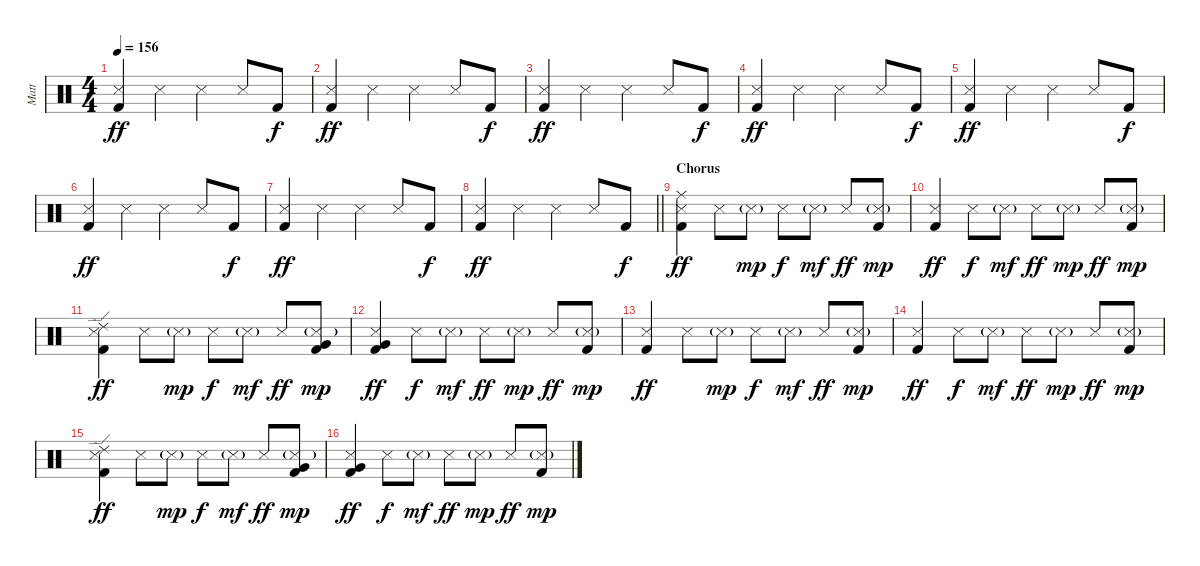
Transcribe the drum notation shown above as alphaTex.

\track ("Matt" "Matt") {instrument percussion}
\staff {score}
\articulation defaults
\ts (4 4)
\tempo 156
\clef neutral
\ks c
("Snare (side stick) 3" "Kick (hit) 2").4{dy ff} "Snare (side stick) 3".4 "Snare (side stick) 3".4 "Snare (side stick) 3".8 "Kick (hit) 2".8{dy f} |
("Snare (side stick) 3" "Kick (hit) 2").4{dy ff} "Snare (side stick) 3".4 "Snare (side stick) 3".4 "Snare (side stick) 3".8 "Kick (hit) 2".8{dy f} |
("Snare (side stick) 3" "Kick (hit) 2").4{dy ff} "Snare (side stick) 3".4 "Snare (side stick) 3".4 "Snare (side stick) 3".8 "Kick (hit) 2".8{dy f} |
("Snare (side stick) 3" "Kick (hit) 2").4{dy ff} "Snare (side stick) 3".4 "Snare (side stick) 3".4 "Snare (side stick) 3".8 "Kick (hit) 2".8{dy f} |
("Snare (side stick) 3" "Kick (hit) 2").4{dy ff} "Snare (side stick) 3".4 "Snare (side stick) 3".4 "Snare (side stick) 3".8 "Kick (hit) 2".8{dy f} |
("Snare (side stick) 3" "Kick (hit) 2").4{dy ff} "Snare (side stick) 3".4 "Snare (side stick) 3".4 "Snare (side stick) 3".8 "Kick (hit) 2".8{dy f} |
("Snare (side stick) 3" "Kick (hit) 2").4{dy ff} "Snare (side stick) 3".4 "Snare (side stick) 3".4 "Snare (side stick) 3".8 "Kick (hit) 2".8{dy f} |
\barLineRight lightlight
("Snare (side stick) 3" "Kick (hit) 2").4{dy ff} "Snare (side stick) 3".4 "Snare (side stick) 3".4 "Snare (side stick) 3".8 "Kick (hit) 2".8{dy f} |
\section ("" "Chorus")
("Ride (middle)" "Snare (side stick) 3" "Kick (hit) 2").4{dy ff} "Snare (side stick) 3".8 "Snare (side stick) 3"{g}.8{dy mp} "Snare (side stick) 3".8{dy f} "Snare (side stick) 3"{g}.8{dy mf} "Snare (side stick) 3".8{dy ff} ("Snare (side stick) 3"{g} "Kick (hit) 2").8{dy mp} |
("Snare (side stick) 3" "Kick (hit) 2").4{dy ff} "Snare (side stick) 3".8{dy f} "Snare (side stick) 3"{g}.8{dy mf} "Snare (side stick) 3".8{dy ff} "Snare (side stick) 3"{g}.8{dy mp} "Snare (side stick) 3".8{dy ff} ("Snare (side stick) 3"{g} "Kick (hit) 2").8{dy mp} |
("Ride (edge) 2" "Snare (side stick) 3" "Kick (hit) 2").4{dy ff} "Snare (side stick) 3".8 "Snare (side stick) 3"{g}.8{dy mp} "Snare (side stick) 3".8{dy f} "Snare (side stick) 3"{g}.8{dy mf} "Snare (side stick) 3".8{dy ff} ("Snare (side stick) 3"{g} "Very Low Tom (hit)" "Kick (hit) 2").8{dy mp} |
("Snare (side stick) 3" "Very Low Tom (hit)" "Kick (hit) 2").4{dy ff} "Snare (side stick) 3".8{dy f} "Snare (side stick) 3"{g}.8{dy mf} "Snare (side stick) 3".8{dy ff} "Snare (side stick) 3"{g}.8{dy mp} "Snare (side stick) 3".8{dy ff} ("Snare (side stick) 3"{g} "Kick (hit) 2").8{dy mp} |
("Snare (side stick) 3" "Kick (hit) 2").4{dy ff} "Snare (side stick) 3".8 "Snare (side stick) 3"{g}.8{dy mp} "Snare (side stick) 3".8{dy f} "Snare (side stick) 3"{g}.8{dy mf} "Snare (side stick) 3".8{dy ff} ("Snare (side stick) 3"{g} "Kick (hit) 2").8{dy mp} |
("Snare (side stick) 3" "Kick (hit) 2").4{dy ff} "Snare (side stick) 3".8{dy f} "Snare (side stick) 3"{g}.8{dy mf} "Snare (side stick) 3".8{dy ff} "Snare (side stick) 3"{g}.8{dy mp} "Snare (side stick) 3".8{dy ff} ("Snare (side stick) 3"{g} "Kick (hit) 2").8{dy mp} |
("Ride (edge) 2" "Snare (side stick) 3" "Kick (hit) 2").4{dy ff} "Snare (side stick) 3".8 "Snare (side stick) 3"{g}.8{dy mp} "Snare (side stick) 3".8{dy f} "Snare (side stick) 3"{g}.8{dy mf} "Snare (side stick) 3".8{dy ff} ("Snare (side stick) 3"{g} "Very Low Tom (hit)" "Kick (hit) 2").8{dy mp} |
("Snare (side stick) 3" "Very Low Tom (hit)" "Kick (hit) 2").4{dy ff} "Snare (side stick) 3".8{dy f} "Snare (side stick) 3"{g}.8{dy mf} "Snare (side stick) 3".8{dy ff} "Snare (side stick) 3"{g}.8{dy mp} "Snare (side stick) 3".8{dy ff} ("Snare (side stick) 3"{g} "Kick (hit) 2").8{dy mp}
